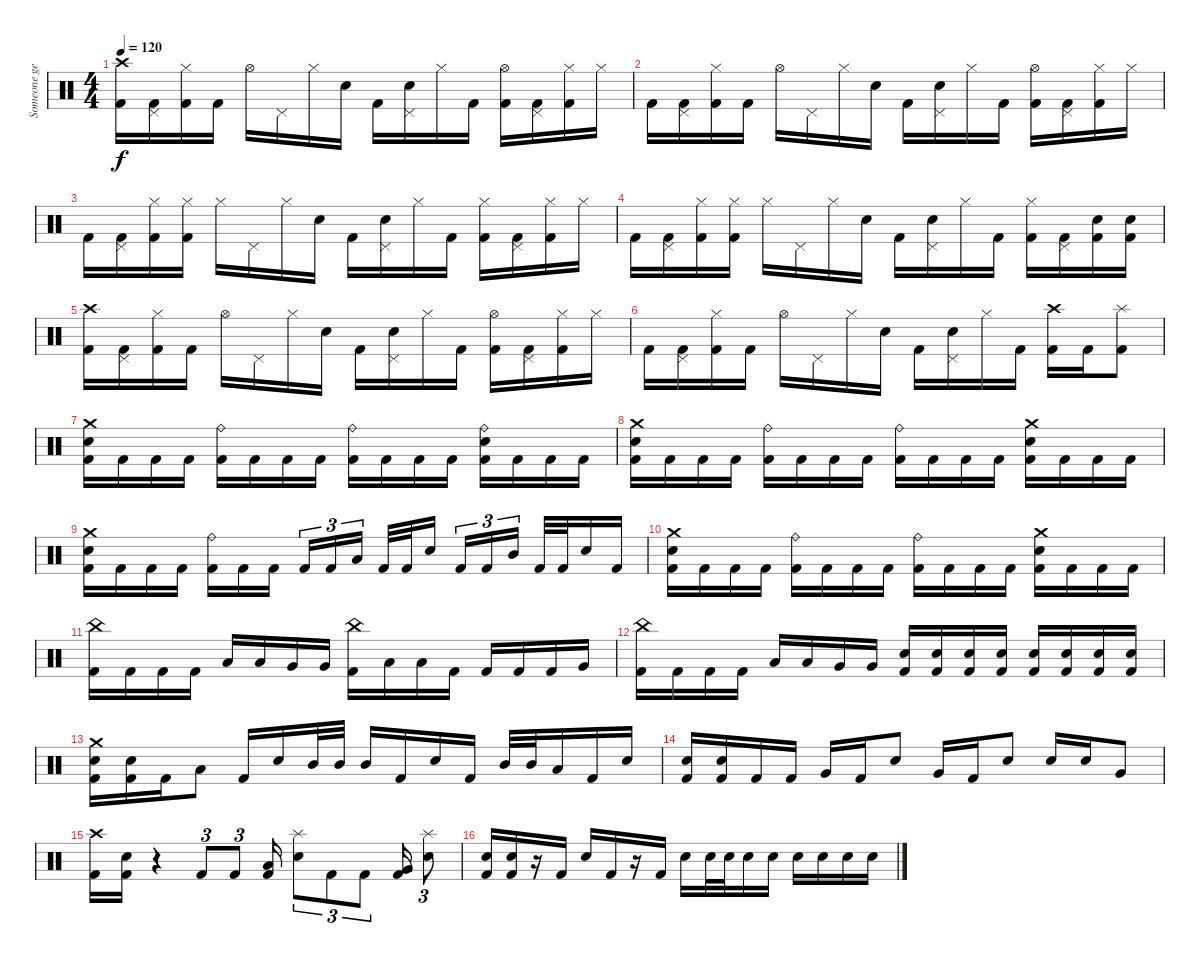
\track ("Someone get me Neil Peart" "Someone ge") {instrument percussion}
\staff {score}
\articulation defaults
\ts (4 4)
\tempo 120
\clef neutral
\ks c
("Crash high (hit)" "Kick (hit) 2").16{dy f} ("Pedal Hi-Hat (hit)" "Kick (hit) 2").16 ("Hi-Hat (closed)" "Kick (hit) 2").16 "Kick (hit) 2".16 "Hi-Hat (open)".16 "Pedal Hi-Hat (hit)".16 "Hi-Hat (closed)".16 "Snare (hit) 2".16 "Kick (hit) 2".16 ("Pedal Hi-Hat (hit)" "Snare (hit) 2").16 "Hi-Hat (closed)".16 "Kick (hit) 2".16 ("Hi-Hat (open)" "Kick (hit) 2").16 ("Pedal Hi-Hat (hit)" "Kick (hit) 2").16 ("Hi-Hat (closed)" "Kick (hit) 2").16 "Hi-Hat (closed)".16 |
"Kick (hit) 2".16 ("Pedal Hi-Hat (hit)" "Kick (hit) 2").16 ("Hi-Hat (closed)" "Kick (hit) 2").16 "Kick (hit) 2".16 "Hi-Hat (open)".16 "Pedal Hi-Hat (hit)".16 "Hi-Hat (closed)".16 "Snare (hit) 2".16 "Kick (hit) 2".16 ("Pedal Hi-Hat (hit)" "Snare (hit) 2").16 "Hi-Hat (closed)".16 "Kick (hit) 2".16 ("Hi-Hat (open)" "Kick (hit) 2").16 ("Pedal Hi-Hat (hit)" "Kick (hit) 2").16 ("Hi-Hat (closed)" "Kick (hit) 2").16 "Hi-Hat (closed)".16 |
"Kick (hit) 2".16 ("Pedal Hi-Hat (hit)" "Kick (hit) 2").16 ("Hi-Hat (closed)" "Kick (hit) 2").16 ("Hi-Hat (closed)" "Kick (hit) 2").16 "Hi-Hat (closed)".16 "Pedal Hi-Hat (hit)".16 "Hi-Hat (closed)".16 "Snare (hit) 2".16 "Kick (hit) 2".16 ("Pedal Hi-Hat (hit)" "Snare (hit) 2").16 "Hi-Hat (closed)".16 "Kick (hit) 2".16 ("Hi-Hat (closed)" "Kick (hit) 2").16 ("Pedal Hi-Hat (hit)" "Kick (hit) 2").16 ("Hi-Hat (closed)" "Kick (hit) 2").16 "Hi-Hat (closed)".16 |
"Kick (hit) 2".16 ("Pedal Hi-Hat (hit)" "Kick (hit) 2").16 ("Hi-Hat (closed)" "Kick (hit) 2").16 ("Hi-Hat (closed)" "Kick (hit) 2").16 "Hi-Hat (closed)".16 "Pedal Hi-Hat (hit)".16 "Hi-Hat (closed)".16 "Snare (hit) 2".16 "Kick (hit) 2".16 ("Pedal Hi-Hat (hit)" "Snare (hit) 2").16 "Hi-Hat (closed)".16 "Kick (hit) 2".16 ("Hi-Hat (closed)" "Kick (hit) 2").16 ("Pedal Hi-Hat (hit)" "Kick (hit) 2").16 ("Snare (hit) 2" "Kick (hit) 2").16 ("Snare (hit) 2" "Kick (hit) 2").16 |
("Crash high (hit)" "Kick (hit) 2").16 ("Pedal Hi-Hat (hit)" "Kick (hit) 2").16 ("Hi-Hat (closed)" "Kick (hit) 2").16 "Kick (hit) 2".16 "Hi-Hat (open)".16 "Pedal Hi-Hat (hit)".16 "Hi-Hat (closed)".16 "Snare (hit) 2".16 "Kick (hit) 2".16 ("Pedal Hi-Hat (hit)" "Snare (hit) 2").16 "Hi-Hat (closed)".16 "Kick (hit) 2".16 ("Hi-Hat (open)" "Kick (hit) 2").16 ("Pedal Hi-Hat (hit)" "Kick (hit) 2").16 ("Hi-Hat (closed)" "Kick (hit) 2").16 "Hi-Hat (closed)".16 |
"Kick (hit) 2".16 ("Pedal Hi-Hat (hit)" "Kick (hit) 2").16 ("Hi-Hat (closed)" "Kick (hit) 2").16 "Kick (hit) 2".16 "Hi-Hat (open)".16 "Pedal Hi-Hat (hit)".16 "Hi-Hat (closed)".16 "Snare (hit) 2".16 "Kick (hit) 2".16 ("Pedal Hi-Hat (hit)" "Snare (hit) 2").16 "Hi-Hat (closed)".16 "Kick (hit) 2".16 ("Crash high (hit)" "Kick (hit) 2").16 "Kick (hit) 2".16 ("Splash (hit)" "Kick (hit) 2").8 |
("Crash medium (hit)" "Snare (hit) 2" "Kick (hit) 2").16 "Kick (hit) 2".16 "Kick (hit) 2".16 "Kick (hit) 2".16 ("Ride (bell)" "Kick (hit) 2").16 "Kick (hit) 2".16 "Kick (hit) 2".16 "Kick (hit) 2".16 ("Ride (bell)" "Kick (hit) 2").16 "Kick (hit) 2".16 "Kick (hit) 2".16 "Kick (hit) 2".16 ("Ride (bell)" "Snare (hit) 2" "Kick (hit) 2").16 "Kick (hit) 2".16 "Kick (hit) 2".16 "Kick (hit) 2".16 |
("Crash medium (hit)" "Snare (hit) 2" "Kick (hit) 2").16 "Kick (hit) 2".16 "Kick (hit) 2".16 "Kick (hit) 2".16 ("Ride (bell)" "Kick (hit) 2").16 "Kick (hit) 2".16 "Kick (hit) 2".16 "Kick (hit) 2".16 ("Ride (bell)" "Kick (hit) 2").16 "Kick (hit) 2".16 "Kick (hit) 2".16 "Kick (hit) 2".16 ("Crash medium (hit)" "Snare (hit) 2" "Kick (hit) 2").16 "Kick (hit) 2".16 "Kick (hit) 2".16 "Kick (hit) 2".16 |
("Crash medium (hit)" "Snare (hit) 2" "Kick (hit) 2").16 "Kick (hit) 2".16 "Kick (hit) 2".16 "Kick (hit) 2".16 ("Ride (bell)" "Kick (hit) 2").16 "Kick (hit) 2".16 "Kick (hit) 2".16{beam splitsecondary} "Kick (hit) 2".16{tu (3 2)} "Kick (hit) 2".16{tu (3 2)} "Low Tom (hit)".16{tu (3 2) beam splitsecondary} "Kick (hit) 2".32 "Kick (hit) 2".32 "Snare (hit) 2".16{beam splitsecondary} "Kick (hit) 2".16{tu (3 2)} "Kick (hit) 2".16{tu (3 2)} "Mid Tom (hit)".16{tu (3 2) beam splitsecondary} "Kick (hit) 2".32 "Kick (hit) 2".32 "Snare (hit) 2".16 "Kick (hit) 2".16 |
("Crash medium (hit)" "Snare (hit) 2" "Kick (hit) 2").16 "Kick (hit) 2".16 "Kick (hit) 2".16 "Kick (hit) 2".16 ("Ride (bell)" "Kick (hit) 2").16 "Kick (hit) 2".16 "Kick (hit) 2".16 "Kick (hit) 2".16 ("Ride (bell)" "Kick (hit) 2").16 "Kick (hit) 2".16 "Kick (hit) 2".16 "Kick (hit) 2".16 ("Crash medium (hit)" "Snare (hit) 2" "Kick (hit) 2").16 "Kick (hit) 2".16 "Kick (hit) 2".16 "Kick (hit) 2".16 |
("China (hit)" "Kick (hit) 2").16 "Kick (hit) 2".16 "Kick (hit) 2".16 "Kick (hit) 2".16 "Low Tom (hit)".16 "Low Tom (hit)".16 "Very Low Tom (hit)".16 "Very Low Tom (hit)".16 ("China (hit)" "Kick (hit) 2").16 "Low Tom (hit)".16 "Low Tom (hit)".16 "Kick (hit) 2".16 "Kick (hit) 2".16 "Kick (hit) 2".16 "Kick (hit) 2".16 "Very Low Tom (hit)".16 |
("China (hit)" "Kick (hit) 2").16 "Kick (hit) 2".16 "Kick (hit) 2".16 "Kick (hit) 2".16 "Low Tom (hit)".16 "Low Tom (hit)".16 "Very Low Tom (hit)".16 "Very Low Tom (hit)".16 ("Snare (hit) 2" "Kick (hit) 2").16 ("Snare (hit) 2" "Kick (hit) 2").16 ("Snare (hit) 2" "Kick (hit) 2").16 ("Snare (hit) 2" "Kick (hit) 2").16 ("Snare (hit) 2" "Kick (hit) 2").16 ("Snare (hit) 2" "Kick (hit) 2").16 ("Snare (hit) 2" "Kick (hit) 2").16 ("Snare (hit) 2" "Kick (hit) 2").16 |
("Crash medium (hit)" "Snare (hit) 2" "Kick (hit) 2").16 ("Snare (hit) 2" "Kick (hit) 2").16 "Kick (hit) 2".16 "Low Tom (hit)".8 "Kick (hit) 2".16 "Snare (hit) 2".16 "Mid Tom (hit)".32 "Mid Tom (hit)".32 "Mid Tom (hit)".16 "Kick (hit) 2".16 "Snare (hit) 2".16 "Kick (hit) 2".16 "Mid Tom (hit)".32 "Mid Tom (hit)".32 "Low Tom (hit)".16 "Kick (hit) 2".16 "Snare (hit) 2".16 |
("Snare (hit) 2" "Kick (hit) 2").16 ("Snare (hit) 2" "Kick (hit) 2").16 "Kick (hit) 2".16 "Kick (hit) 2".16 "Very Low Tom (hit)".16 "Kick (hit) 2".16 "Snare (hit) 2".8 "Very Low Tom (hit)".16 "Kick (hit) 2".16 "Snare (hit) 2".8 "Snare (hit) 2".16 "Snare (hit) 2".16 "Very Low Tom (hit)".8 |
("Crash high (hit)" "Kick (hit) 2").16 ("Snare (hit) 2" "Kick (hit) 2").16 r.4 "Kick (hit) 2".8{tu (3 2)} "Kick (hit) 2".8{tu (3 2)} ("Low Tom (hit)" "Kick (hit) 2").16 ("Splash (hit)" "Snare (hit) 2").8{tu (3 2)} "Kick (hit) 2".8{tu (3 2)} "Kick (hit) 2".8{tu (3 2)} ("Very Low Tom (hit)" "Kick (hit) 2").16 ("Splash (hit)" "Snare (hit) 2").8{tu (3 2)} |
("Snare (hit) 2" "Kick (hit) 2").16 ("Snare (hit) 2" "Kick (hit) 2").16 r.16 "Kick (hit) 2".16 "Snare (hit) 2".16 "Kick (hit) 2".16 r.16 "Kick (hit) 2".16 "Snare (hit) 2".16 "Snare (hit) 2".32 "Snare (hit) 2".32 "Snare (hit) 2".16 "Snare (hit) 2".16 "Snare (hit) 2".16 "Snare (hit) 2".16 "Snare (hit) 2".16 "Snare (hit) 2".16
